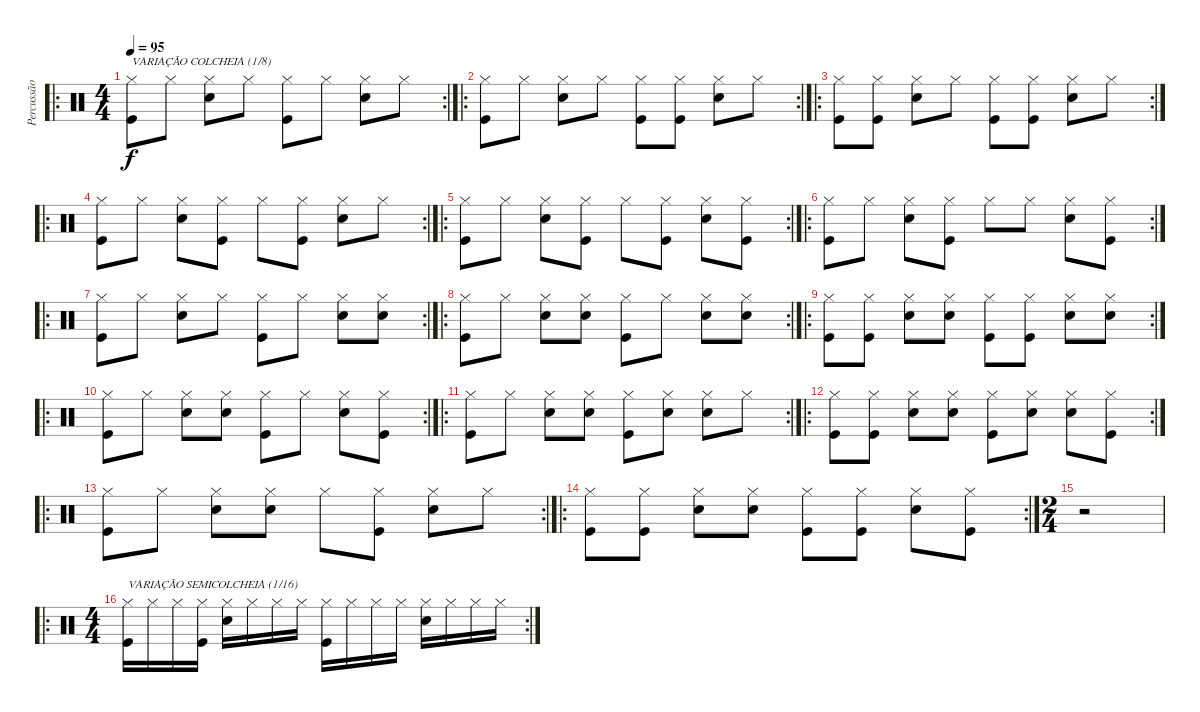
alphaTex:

\track ("Percussão" "Percussão") {instrument percussion}
\staff {score}
\articulation defaults
\ro
\rc 2
\ts (4 4)
\tempo 95
\clef neutral
\ks c
("Hi-Hat (closed)" "Kick (hit)").8{txt "VARIAÇÃO COLCHEIA (1/8)" dy f} "Hi-Hat (closed)".8 ("Hi-Hat (closed)" "Snare (hit) 2").8 "Hi-Hat (closed)".8 ("Hi-Hat (closed)" "Kick (hit)").8 "Hi-Hat (closed)".8 ("Hi-Hat (closed)" "Snare (hit) 2").8 "Hi-Hat (closed)".8 |
\ro
\rc 2
("Hi-Hat (closed)" "Kick (hit)").8 "Hi-Hat (closed)".8 ("Hi-Hat (closed)" "Snare (hit) 2").8 "Hi-Hat (closed)".8 ("Hi-Hat (closed)" "Kick (hit)").8 ("Hi-Hat (closed)" "Kick (hit)").8 ("Hi-Hat (closed)" "Snare (hit) 2").8 "Hi-Hat (closed)".8 |
\ro
\rc 2
("Hi-Hat (closed)" "Kick (hit)").8 ("Hi-Hat (closed)" "Kick (hit)").8 ("Hi-Hat (closed)" "Snare (hit) 2").8 "Hi-Hat (closed)".8 ("Hi-Hat (closed)" "Kick (hit)").8 ("Hi-Hat (closed)" "Kick (hit)").8 ("Hi-Hat (closed)" "Snare (hit) 2").8 "Hi-Hat (closed)".8 |
\ro
\rc 2
("Hi-Hat (closed)" "Kick (hit)").8 "Hi-Hat (closed)".8 ("Hi-Hat (closed)" "Snare (hit) 2").8 ("Hi-Hat (closed)" "Kick (hit)").8 "Hi-Hat (closed)".8 ("Hi-Hat (closed)" "Kick (hit)").8 ("Hi-Hat (closed)" "Snare (hit) 2").8 "Hi-Hat (closed)".8 |
\ro
\rc 2
("Hi-Hat (closed)" "Kick (hit)").8 "Hi-Hat (closed)".8 ("Hi-Hat (closed)" "Snare (hit) 2").8 ("Hi-Hat (closed)" "Kick (hit)").8 "Hi-Hat (closed)".8 ("Hi-Hat (closed)" "Kick (hit)").8 ("Hi-Hat (closed)" "Snare (hit) 2").8 ("Hi-Hat (closed)" "Kick (hit)").8 |
\ro
\rc 2
("Hi-Hat (closed)" "Kick (hit)").8 "Hi-Hat (closed)".8 ("Hi-Hat (closed)" "Snare (hit) 2").8 ("Hi-Hat (closed)" "Kick (hit)").8 "Hi-Hat (closed)".8 "Hi-Hat (closed)".8 ("Hi-Hat (closed)" "Snare (hit) 2").8 ("Hi-Hat (closed)" "Kick (hit)").8 |
\ro
\rc 2
("Hi-Hat (closed)" "Kick (hit)").8 "Hi-Hat (closed)".8 ("Hi-Hat (closed)" "Snare (hit) 2").8 "Hi-Hat (closed)".8 ("Hi-Hat (closed)" "Kick (hit)").8 "Hi-Hat (closed)".8 ("Hi-Hat (closed)" "Snare (hit) 2").8 ("Hi-Hat (closed)" "Snare (hit) 2").8 |
\ro
\rc 2
("Hi-Hat (closed)" "Kick (hit)").8 "Hi-Hat (closed)".8 ("Hi-Hat (closed)" "Snare (hit) 2").8 ("Hi-Hat (closed)" "Snare (hit) 2").8 ("Hi-Hat (closed)" "Kick (hit)").8 "Hi-Hat (closed)".8 ("Hi-Hat (closed)" "Snare (hit) 2").8 ("Hi-Hat (closed)" "Snare (hit) 2").8 |
\ro
\rc 2
("Hi-Hat (closed)" "Kick (hit)").8 ("Hi-Hat (closed)" "Kick (hit)").8 ("Hi-Hat (closed)" "Snare (hit) 2").8 ("Hi-Hat (closed)" "Snare (hit) 2").8 ("Hi-Hat (closed)" "Kick (hit)").8 ("Hi-Hat (closed)" "Kick (hit)").8 ("Hi-Hat (closed)" "Snare (hit) 2").8 ("Hi-Hat (closed)" "Snare (hit) 2").8 |
\ro
\rc 2
("Hi-Hat (closed)" "Kick (hit)").8 "Hi-Hat (closed)".8 ("Hi-Hat (closed)" "Snare (hit) 2").8 ("Hi-Hat (closed)" "Snare (hit) 2").8 ("Hi-Hat (closed)" "Kick (hit)").8 "Hi-Hat (closed)".8 ("Hi-Hat (closed)" "Snare (hit) 2").8 ("Hi-Hat (closed)" "Kick (hit)").8 |
\ro
\rc 2
("Hi-Hat (closed)" "Kick (hit)").8 "Hi-Hat (closed)".8 ("Hi-Hat (closed)" "Snare (hit) 2").8 ("Hi-Hat (closed)" "Snare (hit) 2").8 ("Hi-Hat (closed)" "Kick (hit)").8 ("Hi-Hat (closed)" "Snare (hit) 2").8 ("Hi-Hat (closed)" "Snare (hit) 2").8 "Hi-Hat (closed)".8 |
\ro
\rc 2
("Hi-Hat (closed)" "Kick (hit)").8 ("Hi-Hat (closed)" "Kick (hit)").8 ("Hi-Hat (closed)" "Snare (hit) 2").8 ("Hi-Hat (closed)" "Snare (hit) 2").8 ("Hi-Hat (closed)" "Kick (hit)").8 ("Hi-Hat (closed)" "Snare (hit) 2").8 ("Hi-Hat (closed)" "Snare (hit) 2").8 ("Hi-Hat (closed)" "Kick (hit)").8 |
\ro
\rc 2
("Hi-Hat (closed)" "Kick (hit)").8 "Hi-Hat (closed)".8 ("Hi-Hat (closed)" "Snare (hit) 2").8 ("Hi-Hat (closed)" "Snare (hit) 2").8 "Hi-Hat (closed)".8 ("Hi-Hat (closed)" "Kick (hit)").8 ("Hi-Hat (closed)" "Snare (hit) 2").8 "Hi-Hat (closed)".8 |
\ro
\rc 2
("Hi-Hat (closed)" "Kick (hit)").8 ("Hi-Hat (closed)" "Kick (hit)").8 ("Hi-Hat (closed)" "Snare (hit) 2").8 ("Hi-Hat (closed)" "Snare (hit) 2").8 ("Hi-Hat (closed)" "Kick (hit)").8 ("Hi-Hat (closed)" "Kick (hit)").8 ("Hi-Hat (closed)" "Snare (hit) 2").8 ("Hi-Hat (closed)" "Kick (hit)").8 |
\ts (2 4)
r.2 |
\ro
\rc 2
\ts (4 4)
("Hi-Hat (closed)" "Kick (hit)").16{txt "VARIAÇÃO SEMICOLCHEIA (1/16)"} "Hi-Hat (closed)".16 "Hi-Hat (closed)".16 ("Hi-Hat (closed)" "Kick (hit)").16 ("Hi-Hat (closed)" "Snare (hit) 2").16 "Hi-Hat (closed)".16 "Hi-Hat (closed)".16 "Hi-Hat (closed)".16 ("Hi-Hat (closed)" "Kick (hit)").16 "Hi-Hat (closed)".16 "Hi-Hat (closed)".16 "Hi-Hat (closed)".16 ("Hi-Hat (closed)" "Snare (hit) 2").16 "Hi-Hat (closed)".16 "Hi-Hat (closed)".16 "Hi-Hat (closed)".16
